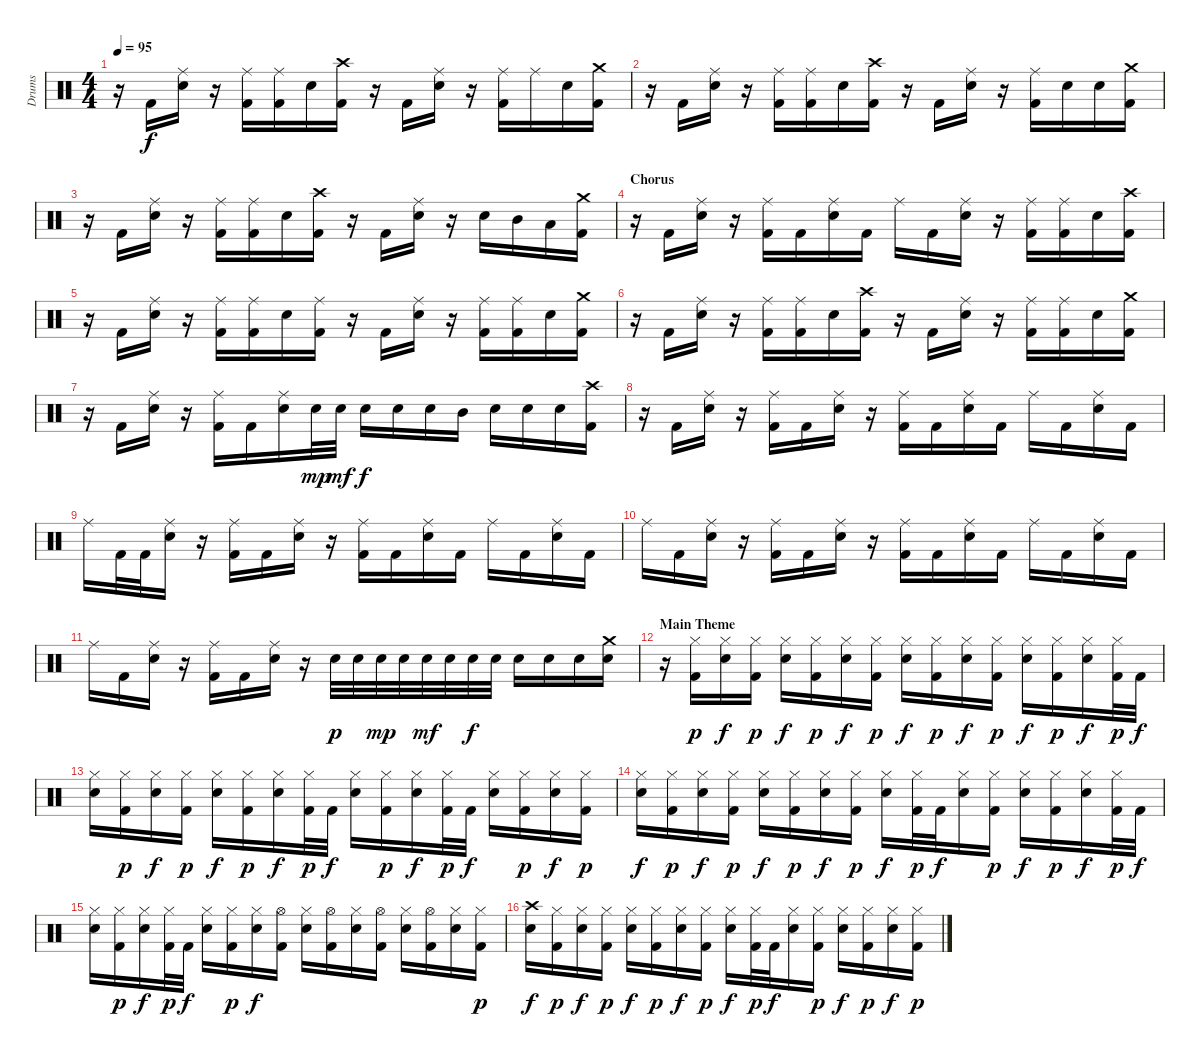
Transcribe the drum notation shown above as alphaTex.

\track ("Drums" "Drums") {instrument percussion}
\staff {score}
\articulation defaults
\ts (4 4)
\tempo 95
\clef neutral
\ks c
r.16{dy f} "Kick (hit) 2".16 ("Ride (middle)" "Snare (hit) 2").16 r.16 ("Ride (middle)" "Kick (hit) 2").16 ("Ride (middle)" "Kick (hit) 2").16 "Snare (hit) 2".16 ("Crash high (hit)" "Kick (hit) 2").16 r.16 "Kick (hit) 2".16 ("Ride (middle)" "Snare (hit) 2").16 r.16 ("Ride (middle)" "Kick (hit) 2").16 "Ride (middle)".16 "Snare (hit) 2".16 ("Crash medium (hit)" "Kick (hit) 2").16 |
r.16 "Kick (hit) 2".16 ("Ride (middle)" "Snare (hit) 2").16 r.16 ("Ride (middle)" "Kick (hit) 2").16 ("Ride (middle)" "Kick (hit) 2").16 "Snare (hit) 2".16 ("Crash high (hit)" "Kick (hit) 2").16 r.16 "Kick (hit) 2".16 ("Ride (middle)" "Snare (hit) 2").16 r.16 ("Ride (middle)" "Kick (hit) 2").16 "Snare (hit) 2".16 "Snare (hit) 2".16 ("Crash medium (hit)" "Kick (hit) 2").16 |
r.16 "Kick (hit) 2".16 ("Ride (middle)" "Snare (hit) 2").16 r.16 ("Ride (middle)" "Kick (hit) 2").16 ("Ride (middle)" "Kick (hit) 2").16 "Snare (hit) 2".16 ("Crash high (hit)" "Kick (hit) 2").16 r.16 "Kick (hit) 2".16 ("Ride (middle)" "Snare (hit) 2").16 r.16 "Snare (hit) 2".16 "Mid Tom (hit)".16 "Low Tom (hit)".16 ("Crash medium (hit)" "Kick (hit) 2").16 |
\section ("" "Chorus")
r.16 "Kick (hit) 2".16 ("Ride (middle)" "Snare (hit) 2").16 r.16 ("Ride (middle)" "Kick (hit) 2").16 "Kick (hit) 2".16 ("Ride (middle)" "Snare (hit) 2").16 "Kick (hit) 2".16 "Ride (middle)".16 "Kick (hit) 2".16 ("Ride (middle)" "Snare (hit) 2").16 r.16 ("Ride (middle)" "Kick (hit) 2").16 ("Ride (middle)" "Kick (hit) 2").16 "Snare (hit) 2".16 ("Crash high (hit)" "Kick (hit) 2").16 |
r.16 "Kick (hit) 2".16 ("Ride (middle)" "Snare (hit) 2").16 r.16 ("Ride (middle)" "Kick (hit) 2").16 ("Ride (middle)" "Kick (hit) 2").16 "Snare (hit) 2".16 ("Ride (middle)" "Kick (hit) 2").16 r.16 "Kick (hit) 2".16 ("Ride (middle)" "Snare (hit) 2").16 r.16 ("Ride (middle)" "Kick (hit) 2").16 ("Ride (middle)" "Kick (hit) 2").16 "Snare (hit) 2".16 ("Crash medium (hit)" "Kick (hit) 2").16 |
r.16 "Kick (hit) 2".16 ("Ride (middle)" "Snare (hit) 2").16 r.16 ("Ride (middle)" "Kick (hit) 2").16 ("Ride (middle)" "Kick (hit) 2").16 "Snare (hit) 2".16 ("Crash high (hit)" "Kick (hit) 2").16 r.16 "Kick (hit) 2".16 ("Ride (middle)" "Snare (hit) 2").16 r.16 ("Ride (middle)" "Kick (hit) 2").16 ("Ride (middle)" "Kick (hit) 2").16 "Snare (hit) 2".16 ("Crash medium (hit)" "Kick (hit) 2").16 |
r.16 "Kick (hit) 2".16 ("Ride (middle)" "Snare (hit) 2").16 r.16 ("Ride (middle)" "Kick (hit) 2").16 "Kick (hit) 2".16 ("Ride (middle)" "Snare (hit) 2").16 "Snare (hit) 2".32{dy mp} "Snare (hit) 2".32{dy mf} "Snare (hit) 2".16{dy f} "Snare (hit) 2".16 "Snare (hit) 2".16 "Mid Tom (hit)".16 "Snare (hit) 2".16 "Snare (hit) 2".16 "Snare (hit) 2".16 ("Crash high (hit)" "Kick (hit) 2").16 |
r.16 "Kick (hit) 2".16 ("Ride (middle)" "Snare (hit) 2").16 r.16 ("Ride (middle)" "Kick (hit) 2").16 "Kick (hit) 2".16 ("Ride (middle)" "Snare (hit) 2").16 r.16 ("Ride (middle)" "Kick (hit) 2").16 "Kick (hit) 2".16 ("Ride (middle)" "Snare (hit) 2").16 "Kick (hit) 2".16 "Ride (middle)".16 "Kick (hit) 2".16 ("Ride (middle)" "Snare (hit) 2").16 "Kick (hit) 2".16 |
"Ride (middle)".16 "Kick (hit) 2".32 "Kick (hit) 2".32 ("Ride (middle)" "Snare (hit) 2").16 r.16 ("Ride (middle)" "Kick (hit) 2").16 "Kick (hit) 2".16 ("Ride (middle)" "Snare (hit) 2").16 r.16 ("Ride (middle)" "Kick (hit) 2").16 "Kick (hit) 2".16 ("Ride (middle)" "Snare (hit) 2").16 "Kick (hit) 2".16 "Ride (middle)".16 "Kick (hit) 2".16 ("Ride (middle)" "Snare (hit) 2").16 "Kick (hit) 2".16 |
"Ride (middle)".16 "Kick (hit) 2".16 ("Ride (middle)" "Snare (hit) 2").16 r.16 ("Ride (middle)" "Kick (hit) 2").16 "Kick (hit) 2".16 ("Ride (middle)" "Snare (hit) 2").16 r.16 ("Ride (middle)" "Kick (hit) 2").16 "Kick (hit) 2".16 ("Ride (middle)" "Snare (hit) 2").16 "Kick (hit) 2".16 "Ride (middle)".16 "Kick (hit) 2".16 ("Ride (middle)" "Snare (hit) 2").16 "Kick (hit) 2".16 |
"Ride (middle)".16 "Kick (hit) 2".16 ("Ride (middle)" "Snare (hit) 2").16 r.16 ("Ride (middle)" "Kick (hit) 2").16 "Kick (hit) 2".16 ("Ride (middle)" "Snare (hit) 2").16 r.16 "Snare (hit) 2".32{dy p} "Snare (hit) 2".32 "Snare (hit) 2".32{dy mp} "Snare (hit) 2".32 "Snare (hit) 2".32{dy mf} "Snare (hit) 2".32 "Snare (hit) 2".32{dy f} "Snare (hit) 2".32 "Snare (hit) 2".16 "Snare (hit) 2".16 "Snare (hit) 2".16 ("Crash medium (hit)" "Snare (hit) 2").16 |
\section ("" "Main Theme")
r.16 ("Hi-Hat (closed)" "Kick (hit) 2").16{dy p} ("Hi-Hat (closed)" "Snare (hit) 2").16{dy f} ("Hi-Hat (closed)" "Kick (hit) 2").16{dy p} ("Hi-Hat (closed)" "Snare (hit) 2").16{dy f} ("Hi-Hat (closed)" "Kick (hit) 2").16{dy p} ("Hi-Hat (closed)" "Snare (hit) 2").16{dy f} ("Hi-Hat (closed)" "Kick (hit) 2").16{dy p} ("Hi-Hat (closed)" "Snare (hit) 2").16{dy f} ("Hi-Hat (closed)" "Kick (hit) 2").16{dy p} ("Hi-Hat (closed)" "Snare (hit) 2").16{dy f} ("Hi-Hat (closed)" "Kick (hit) 2").16{dy p} ("Hi-Hat (closed)" "Snare (hit) 2").16{dy f} ("Hi-Hat (closed)" "Kick (hit) 2").16{dy p} ("Hi-Hat (closed)" "Snare (hit) 2").16{dy f} ("Hi-Hat (closed)" "Kick (hit) 2").32{dy p} "Kick (hit) 2".32{dy f} |
("Hi-Hat (closed)" "Snare (hit) 2").16 ("Hi-Hat (closed)" "Kick (hit) 2").16{dy p} ("Hi-Hat (closed)" "Snare (hit) 2").16{dy f} ("Hi-Hat (closed)" "Kick (hit) 2").16{dy p} ("Hi-Hat (closed)" "Snare (hit) 2").16{dy f} ("Hi-Hat (closed)" "Kick (hit) 2").16{dy p} ("Hi-Hat (closed)" "Snare (hit) 2").16{dy f} ("Hi-Hat (closed)" "Kick (hit) 2").32{dy p} "Kick (hit) 2".32{dy f} ("Hi-Hat (closed)" "Snare (hit) 2").16 ("Hi-Hat (closed)" "Kick (hit) 2").16{dy p} ("Hi-Hat (closed)" "Snare (hit) 2").16{dy f} ("Hi-Hat (closed)" "Kick (hit) 2").32{dy p} "Kick (hit) 2".32{dy f} ("Hi-Hat (closed)" "Snare (hit) 2").16 ("Hi-Hat (closed)" "Kick (hit) 2").16{dy p} ("Hi-Hat (closed)" "Snare (hit) 2").16{dy f} ("Hi-Hat (closed)" "Kick (hit) 2").16{dy p} |
("Hi-Hat (closed)" "Snare (hit) 2").16{dy f} ("Hi-Hat (closed)" "Kick (hit) 2").16{dy p} ("Hi-Hat (closed)" "Snare (hit) 2").16{dy f} ("Hi-Hat (closed)" "Kick (hit) 2").16{dy p} ("Hi-Hat (closed)" "Snare (hit) 2").16{dy f} ("Hi-Hat (closed)" "Kick (hit) 2").16{dy p} ("Hi-Hat (closed)" "Snare (hit) 2").16{dy f} ("Hi-Hat (closed)" "Kick (hit) 2").16{dy p} ("Hi-Hat (closed)" "Snare (hit) 2").16{dy f} ("Hi-Hat (closed)" "Kick (hit) 2").32{dy p} "Kick (hit) 2".32{dy f} ("Hi-Hat (closed)" "Snare (hit) 2").16 ("Hi-Hat (closed)" "Kick (hit) 2").16{dy p} ("Hi-Hat (closed)" "Snare (hit) 2").16{dy f} ("Hi-Hat (closed)" "Kick (hit) 2").16{dy p} ("Hi-Hat (closed)" "Snare (hit) 2").16{dy f} ("Hi-Hat (closed)" "Kick (hit) 2").32{dy p} "Kick (hit) 2".32{dy f} |
("Hi-Hat (closed)" "Snare (hit) 2").16 ("Hi-Hat (closed)" "Kick (hit) 2").16{dy p} ("Hi-Hat (closed)" "Snare (hit) 2").16{dy f} ("Hi-Hat (closed)" "Kick (hit) 2").32{dy p} "Kick (hit) 2".32{dy f} ("Hi-Hat (closed)" "Snare (hit) 2").16 ("Hi-Hat (closed)" "Kick (hit) 2").16{dy p} ("Hi-Hat (closed)" "Snare (hit) 2").16{dy f} ("Hi-Hat (open)" "Kick (hit) 2").16 ("Hi-Hat (closed)" "Snare (hit) 2").16 ("Hi-Hat (open)" "Kick (hit) 2").16 ("Hi-Hat (closed)" "Snare (hit) 2").16 ("Hi-Hat (open)" "Kick (hit) 2").16 ("Hi-Hat (closed)" "Snare (hit) 2").16 ("Hi-Hat (open)" "Kick (hit) 2").16 ("Hi-Hat (closed)" "Snare (hit) 2").16 ("Hi-Hat (closed)" "Kick (hit) 2").16{dy p} |
("Crash high (hit)" "Snare (hit) 2").16{dy f} ("Hi-Hat (closed)" "Kick (hit) 2").16{dy p} ("Hi-Hat (closed)" "Snare (hit) 2").16{dy f} ("Hi-Hat (closed)" "Kick (hit) 2").16{dy p} ("Hi-Hat (closed)" "Snare (hit) 2").16{dy f} ("Hi-Hat (closed)" "Kick (hit) 2").16{dy p} ("Hi-Hat (closed)" "Snare (hit) 2").16{dy f} ("Hi-Hat (closed)" "Kick (hit) 2").16{dy p} ("Hi-Hat (closed)" "Snare (hit) 2").16{dy f} ("Hi-Hat (closed)" "Kick (hit) 2").32{dy p} "Kick (hit) 2".32{dy f} ("Hi-Hat (closed)" "Snare (hit) 2").16 ("Hi-Hat (closed)" "Kick (hit) 2").16{dy p} ("Hi-Hat (closed)" "Snare (hit) 2").16{dy f} ("Hi-Hat (closed)" "Kick (hit) 2").16{dy p} ("Hi-Hat (closed)" "Snare (hit) 2").16{dy f} ("Hi-Hat (closed)" "Kick (hit) 2").16{dy p}
